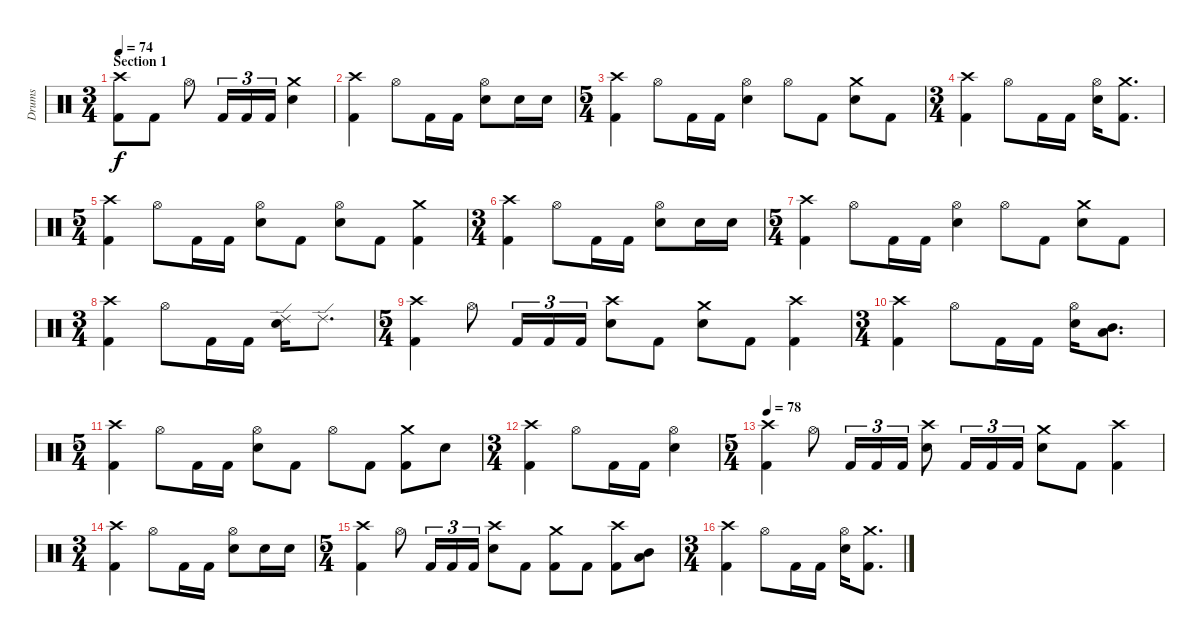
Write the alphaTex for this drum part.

\track ("Drums" "Drums") {instrument percussion}
\staff {score}
\articulation defaults
\ts (3 4)
\section ("" "Section 1")
\tempo 74
\clef neutral
\ks c
("Crash high (hit)" "Kick (hit) 2").8{dy f} "Kick (hit) 2".8 "Hi-Hat (open)".8 "Kick (hit) 2".16{tu (3 2)} "Kick (hit) 2".16{tu (3 2)} "Kick (hit) 2".16{tu (3 2)} ("Crash medium (hit)" "Electric Snare (hit)").4 |
("Crash high (hit)" "Kick (hit) 2").4 "Hi-Hat (open)".8 "Kick (hit) 2".16 "Kick (hit) 2".16 ("Hi-Hat (open)" "Electric Snare (hit)").8 "Electric Snare (hit)".16 "Electric Snare (hit)".16 |
\ts (5 4)
("Crash high (hit)" "Kick (hit) 2").4 "Hi-Hat (open)".8 "Kick (hit) 2".16 "Kick (hit) 2".16 ("Hi-Hat (open)" "Electric Snare (hit)").4 "Hi-Hat (open)".8 "Kick (hit) 2".8 ("Crash medium (hit)" "Electric Snare (hit)").8 "Kick (hit) 2".8 |
\ts (3 4)
("Crash high (hit)" "Kick (hit) 2").4 "Hi-Hat (open)".8 "Kick (hit) 2".16 "Kick (hit) 2".16 ("Hi-Hat (open)" "Electric Snare (hit)").16 ("Crash medium (hit)" "Kick (hit) 2").8{d} |
\ts (5 4)
("Crash high (hit)" "Kick (hit) 2").4 "Hi-Hat (open)".8 "Kick (hit) 2".16 "Kick (hit) 2".16 ("Hi-Hat (open)" "Electric Snare (hit)").8 "Kick (hit) 2".8 ("Hi-Hat (open)" "Electric Snare (hit)").8 "Kick (hit) 2".8 ("Crash medium (hit)" "Kick (hit) 2").4 |
\ts (3 4)
("Crash high (hit)" "Kick (hit) 2").4 "Hi-Hat (open)".8 "Kick (hit) 2".16 "Kick (hit) 2".16 ("Hi-Hat (open)" "Electric Snare (hit)").8 "Electric Snare (hit)".16 "Electric Snare (hit)".16 |
\ts (5 4)
("Crash high (hit)" "Kick (hit) 2").4 "Hi-Hat (open)".8 "Kick (hit) 2".16 "Kick (hit) 2".16 ("Hi-Hat (open)" "Electric Snare (hit)").4 "Hi-Hat (open)".8 "Kick (hit) 2".8 ("Crash medium (hit)" "Electric Snare (hit)").8 "Kick (hit) 2".8 |
\ts (3 4)
("Crash high (hit)" "Kick (hit) 2").4 "Hi-Hat (open)".8 "Kick (hit) 2".16 "Kick (hit) 2".16 ("Ride (edge) 2" "Electric Snare (hit)").16 "Ride (edge) 2".8{d} |
\ts (5 4)
("Crash high (hit)" "Kick (hit) 2").4 "Hi-Hat (open)".8 "Kick (hit) 2".16{tu (3 2)} "Kick (hit) 2".16{tu (3 2)} "Kick (hit) 2".16{tu (3 2)} ("Crash high (hit)" "Electric Snare (hit)").8 "Kick (hit) 2".8 ("Crash medium (hit)" "Electric Snare (hit)").8 "Kick (hit) 2".8 ("Crash high (hit)" "Kick (hit) 2").4 |
\ts (3 4)
("Crash high (hit)" "Kick (hit) 2").4 "Hi-Hat (open)".8 "Kick (hit) 2".16 "Kick (hit) 2".16 ("Hi-Hat (open)" "Electric Snare (hit)").16 ("Mid Tom (hit)" "Low Tom (hit)").8{d bu 60} |
\ts (5 4)
("Crash high (hit)" "Kick (hit) 2").4 "Hi-Hat (open)".8 "Kick (hit) 2".16 "Kick (hit) 2".16 ("Hi-Hat (open)" "Electric Snare (hit)").8 "Kick (hit) 2".8 "Hi-Hat (open)".8 "Kick (hit) 2".8 ("Crash medium (hit)" "Kick (hit) 2").8 "Electric Snare (hit)".8 |
\ts (3 4)
("Crash high (hit)" "Kick (hit) 2").4 "Hi-Hat (open)".8 "Kick (hit) 2".16 "Kick (hit) 2".16 ("Hi-Hat (open)" "Electric Snare (hit)").4 |
\ts (5 4)
\tempo 78
("Crash high (hit)" "Kick (hit) 2").4 "Hi-Hat (open)".8 "Kick (hit) 2".16{tu (3 2)} "Kick (hit) 2".16{tu (3 2)} "Kick (hit) 2".16{tu (3 2)} ("Crash high (hit)" "Electric Snare (hit)").8 "Kick (hit) 2".16{tu (3 2)} "Kick (hit) 2".16{tu (3 2)} "Kick (hit) 2".16{tu (3 2)} ("Crash medium (hit)" "Electric Snare (hit)").8 "Kick (hit) 2".8 ("Crash high (hit)" "Kick (hit) 2").4 |
\ts (3 4)
("Crash high (hit)" "Kick (hit) 2").4 "Hi-Hat (open)".8 "Kick (hit) 2".16 "Kick (hit) 2".16 ("Hi-Hat (open)" "Electric Snare (hit)").8 "Electric Snare (hit)".16 "Electric Snare (hit)".16 |
\ts (5 4)
("Crash high (hit)" "Kick (hit) 2").4 "Hi-Hat (open)".8 "Kick (hit) 2".16{tu (3 2)} "Kick (hit) 2".16{tu (3 2)} "Kick (hit) 2".16{tu (3 2)} ("Crash high (hit)" "Electric Snare (hit)").8 "Kick (hit) 2".8 ("Crash medium (hit)" "Kick (hit) 2").8 "Kick (hit) 2".8 ("Crash high (hit)" "Kick (hit) 2").8 ("Mid Tom (hit)" "Low Tom (hit)").8{bu 60} |
\ts (3 4)
("Crash high (hit)" "Kick (hit) 2").4 "Hi-Hat (open)".8 "Kick (hit) 2".16 "Kick (hit) 2".16 ("Hi-Hat (open)" "Electric Snare (hit)").16 ("Crash medium (hit)" "Kick (hit) 2").8{d}
